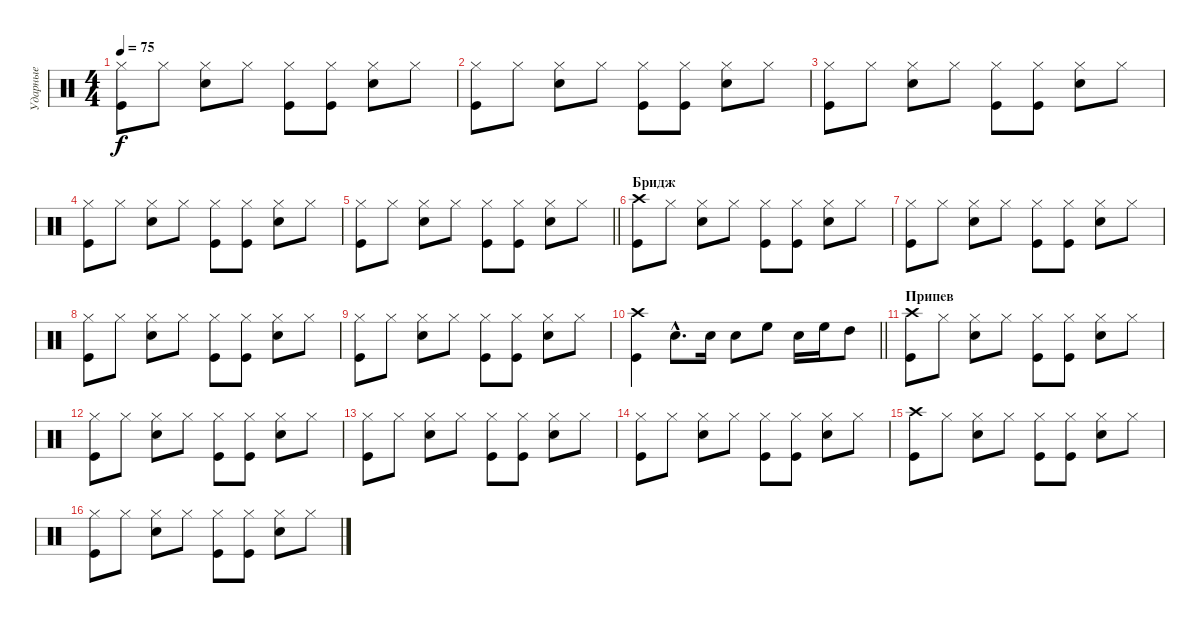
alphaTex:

\track ("Ударные" "Ударные") {instrument percussion}
\staff {score}
\articulation defaults
\ts (4 4)
\tempo 75
\clef neutral
\ks c
("Hi-Hat (closed)" "Kick (hit)").8{dy f} "Hi-Hat (closed)".8 ("Hi-Hat (closed)" "Snare (hit) 2").8 "Hi-Hat (closed)".8 ("Hi-Hat (closed)" "Kick (hit)").8 ("Hi-Hat (closed)" "Kick (hit)").8 ("Hi-Hat (closed)" "Snare (hit) 2").8 "Hi-Hat (closed)".8 |
("Hi-Hat (closed)" "Kick (hit)").8 "Hi-Hat (closed)".8 ("Hi-Hat (closed)" "Snare (hit) 2").8 "Hi-Hat (closed)".8 ("Hi-Hat (closed)" "Kick (hit)").8 ("Hi-Hat (closed)" "Kick (hit)").8 ("Hi-Hat (closed)" "Snare (hit) 2").8 "Hi-Hat (closed)".8 |
("Hi-Hat (closed)" "Kick (hit)").8 "Hi-Hat (closed)".8 ("Hi-Hat (closed)" "Snare (hit) 2").8 "Hi-Hat (closed)".8 ("Hi-Hat (closed)" "Kick (hit)").8 ("Hi-Hat (closed)" "Kick (hit)").8 ("Hi-Hat (closed)" "Snare (hit) 2").8 "Hi-Hat (closed)".8 |
("Hi-Hat (closed)" "Kick (hit)").8 "Hi-Hat (closed)".8 ("Hi-Hat (closed)" "Snare (hit) 2").8 "Hi-Hat (closed)".8 ("Hi-Hat (closed)" "Kick (hit)").8 ("Hi-Hat (closed)" "Kick (hit)").8 ("Hi-Hat (closed)" "Snare (hit) 2").8 "Hi-Hat (closed)".8 |
\barLineRight lightlight
("Hi-Hat (closed)" "Kick (hit)").8 "Hi-Hat (closed)".8 ("Hi-Hat (closed)" "Snare (hit) 2").8 "Hi-Hat (closed)".8 ("Hi-Hat (closed)" "Kick (hit)").8 ("Hi-Hat (closed)" "Kick (hit)").8 ("Hi-Hat (closed)" "Snare (hit) 2").8 "Hi-Hat (closed)".8 |
\section ("" "Бридж")
("Crash high (hit)" "Kick (hit)").8 "Hi-Hat (closed)".8 ("Hi-Hat (closed)" "Snare (hit) 2").8 "Hi-Hat (closed)".8 ("Hi-Hat (closed)" "Kick (hit)").8 ("Hi-Hat (closed)" "Kick (hit)").8 ("Hi-Hat (closed)" "Snare (hit) 2").8 "Hi-Hat (closed)".8 |
("Hi-Hat (closed)" "Kick (hit)").8 "Hi-Hat (closed)".8 ("Hi-Hat (closed)" "Snare (hit) 2").8 "Hi-Hat (closed)".8 ("Hi-Hat (closed)" "Kick (hit)").8 ("Hi-Hat (closed)" "Kick (hit)").8 ("Hi-Hat (closed)" "Snare (hit) 2").8 "Hi-Hat (closed)".8 |
("Hi-Hat (closed)" "Kick (hit)").8 "Hi-Hat (closed)".8 ("Hi-Hat (closed)" "Snare (hit) 2").8 "Hi-Hat (closed)".8 ("Hi-Hat (closed)" "Kick (hit)").8 ("Hi-Hat (closed)" "Kick (hit)").8 ("Hi-Hat (closed)" "Snare (hit) 2").8 "Hi-Hat (closed)".8 |
("Hi-Hat (closed)" "Kick (hit)").8 "Hi-Hat (closed)".8 ("Hi-Hat (closed)" "Snare (hit) 2").8 "Hi-Hat (closed)".8 ("Hi-Hat (closed)" "Kick (hit)").8 ("Hi-Hat (closed)" "Kick (hit)").8 ("Hi-Hat (closed)" "Snare (hit) 2").8 "Hi-Hat (closed)".8 |
\barLineRight lightlight
("Crash high (hit)" "Kick (hit)").4 "Snare (hit) 2"{hac}.8{d} "Snare (hit) 2".16 "Snare (hit) 2".8 "High Floor Tom (hit)".8 "Snare (hit) 2".16 "High Floor Tom (hit)".16 "High Tom (hit)".8 |
\section ("" "Припев")
("Crash high (hit)" "Kick (hit)").8 "Hi-Hat (closed)".8 ("Hi-Hat (closed)" "Snare (hit) 2").8 "Hi-Hat (closed)".8 ("Hi-Hat (closed)" "Kick (hit)").8 ("Hi-Hat (closed)" "Kick (hit)").8 ("Hi-Hat (closed)" "Snare (hit) 2").8 "Hi-Hat (closed)".8 |
("Hi-Hat (closed)" "Kick (hit)").8 "Hi-Hat (closed)".8 ("Hi-Hat (closed)" "Snare (hit) 2").8 "Hi-Hat (closed)".8 ("Hi-Hat (closed)" "Kick (hit)").8 ("Hi-Hat (closed)" "Kick (hit)").8 ("Hi-Hat (closed)" "Snare (hit) 2").8 "Hi-Hat (closed)".8 |
("Hi-Hat (closed)" "Kick (hit)").8 "Hi-Hat (closed)".8 ("Hi-Hat (closed)" "Snare (hit) 2").8 "Hi-Hat (closed)".8 ("Hi-Hat (closed)" "Kick (hit)").8 ("Hi-Hat (closed)" "Kick (hit)").8 ("Hi-Hat (closed)" "Snare (hit) 2").8 "Hi-Hat (closed)".8 |
("Hi-Hat (closed)" "Kick (hit)").8 "Hi-Hat (closed)".8 ("Hi-Hat (closed)" "Snare (hit) 2").8 "Hi-Hat (closed)".8 ("Hi-Hat (closed)" "Kick (hit)").8 ("Hi-Hat (closed)" "Kick (hit)").8 ("Hi-Hat (closed)" "Snare (hit) 2").8 "Hi-Hat (closed)".8 |
("Crash high (hit)" "Kick (hit)").8 "Hi-Hat (closed)".8 ("Hi-Hat (closed)" "Snare (hit) 2").8 "Hi-Hat (closed)".8 ("Hi-Hat (closed)" "Kick (hit)").8 ("Hi-Hat (closed)" "Kick (hit)").8 ("Hi-Hat (closed)" "Snare (hit) 2").8 "Hi-Hat (closed)".8 |
("Hi-Hat (closed)" "Kick (hit)").8 "Hi-Hat (closed)".8 ("Hi-Hat (closed)" "Snare (hit) 2").8 "Hi-Hat (closed)".8 ("Hi-Hat (closed)" "Kick (hit)").8 ("Hi-Hat (closed)" "Kick (hit)").8 ("Hi-Hat (closed)" "Snare (hit) 2").8 "Hi-Hat (closed)".8
